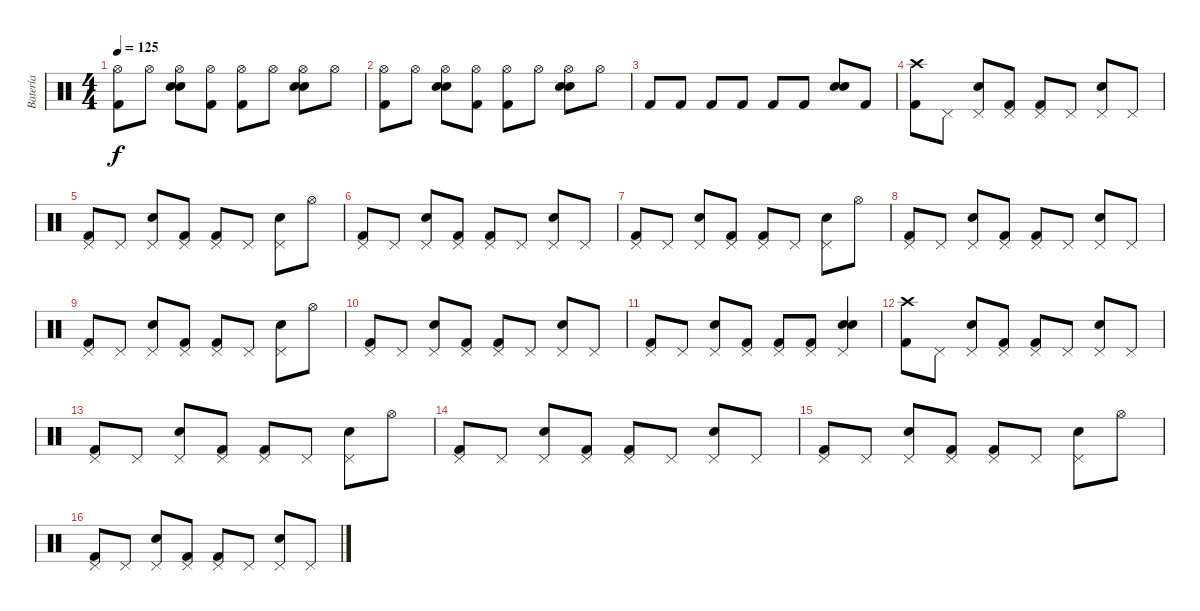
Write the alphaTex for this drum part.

\track ("Batería" "Batería") {instrument percussion}
\staff {score}
\articulation defaults
\ts (4 4)
\tempo 125
\clef neutral
\ks c
("Kick (hit) 2" "Hi-Hat (open)").8{dy f} "Hi-Hat (open)".8 ("Electric Snare (hit)" "Hi-Hat (open)" "Snare (hit) 2").8 ("Kick (hit) 2" "Hi-Hat (open)").8 ("Kick (hit) 2" "Hi-Hat (open)").8 "Hi-Hat (open)".8 ("Electric Snare (hit)" "Hi-Hat (open)" "Snare (hit) 2").8 "Hi-Hat (open)".8 |
("Kick (hit) 2" "Hi-Hat (open)").8 "Hi-Hat (open)".8 ("Electric Snare (hit)" "Hi-Hat (open)" "Snare (hit) 2").8 ("Kick (hit) 2" "Hi-Hat (open)").8 ("Kick (hit) 2" "Hi-Hat (open)").8 "Hi-Hat (open)".8 ("Electric Snare (hit)" "Hi-Hat (open)" "Snare (hit) 2").8 "Hi-Hat (open)".8 |
"Kick (hit) 2".8 "Kick (hit) 2".8 "Kick (hit) 2".8 "Kick (hit) 2".8 "Kick (hit) 2".8 "Kick (hit) 2".8 ("Electric Snare (hit)" "Snare (hit) 2").8 "Kick (hit) 2".8 |
("Kick (hit) 2" "Crash high (hit)").8 "Pedal Hi-Hat (hit)".8 ("Electric Snare (hit)" "Pedal Hi-Hat (hit)").8 ("Kick (hit) 2" "Pedal Hi-Hat (hit)").8 ("Kick (hit) 2" "Pedal Hi-Hat (hit)").8 "Pedal Hi-Hat (hit)".8 ("Electric Snare (hit)" "Pedal Hi-Hat (hit)").8 "Pedal Hi-Hat (hit)".8 |
("Kick (hit) 2" "Pedal Hi-Hat (hit)").8 "Pedal Hi-Hat (hit)".8 ("Electric Snare (hit)" "Pedal Hi-Hat (hit)").8 ("Kick (hit) 2" "Pedal Hi-Hat (hit)").8 ("Kick (hit) 2" "Pedal Hi-Hat (hit)").8 "Pedal Hi-Hat (hit)".8 ("Electric Snare (hit)" "Pedal Hi-Hat (hit)").8 "Hi-Hat (open)".8 |
("Kick (hit) 2" "Pedal Hi-Hat (hit)").8 "Pedal Hi-Hat (hit)".8 ("Electric Snare (hit)" "Pedal Hi-Hat (hit)").8 ("Kick (hit) 2" "Pedal Hi-Hat (hit)").8 ("Kick (hit) 2" "Pedal Hi-Hat (hit)").8 "Pedal Hi-Hat (hit)".8 ("Electric Snare (hit)" "Pedal Hi-Hat (hit)").8 "Pedal Hi-Hat (hit)".8 |
("Kick (hit) 2" "Pedal Hi-Hat (hit)").8 "Pedal Hi-Hat (hit)".8 ("Electric Snare (hit)" "Pedal Hi-Hat (hit)").8 ("Kick (hit) 2" "Pedal Hi-Hat (hit)").8 ("Kick (hit) 2" "Pedal Hi-Hat (hit)").8 "Pedal Hi-Hat (hit)".8 ("Electric Snare (hit)" "Pedal Hi-Hat (hit)").8 "Hi-Hat (open)".8 |
("Kick (hit) 2" "Pedal Hi-Hat (hit)").8 "Pedal Hi-Hat (hit)".8 ("Electric Snare (hit)" "Pedal Hi-Hat (hit)").8 ("Kick (hit) 2" "Pedal Hi-Hat (hit)").8 ("Kick (hit) 2" "Pedal Hi-Hat (hit)").8 "Pedal Hi-Hat (hit)".8 ("Electric Snare (hit)" "Pedal Hi-Hat (hit)").8 "Pedal Hi-Hat (hit)".8 |
("Kick (hit) 2" "Pedal Hi-Hat (hit)").8 "Pedal Hi-Hat (hit)".8 ("Electric Snare (hit)" "Pedal Hi-Hat (hit)").8 ("Kick (hit) 2" "Pedal Hi-Hat (hit)").8 ("Kick (hit) 2" "Pedal Hi-Hat (hit)").8 "Pedal Hi-Hat (hit)".8 ("Electric Snare (hit)" "Pedal Hi-Hat (hit)").8 "Hi-Hat (open)".8 |
("Kick (hit) 2" "Pedal Hi-Hat (hit)").8 "Pedal Hi-Hat (hit)".8 ("Electric Snare (hit)" "Pedal Hi-Hat (hit)").8 ("Kick (hit) 2" "Pedal Hi-Hat (hit)").8 ("Kick (hit) 2" "Pedal Hi-Hat (hit)").8 "Pedal Hi-Hat (hit)".8 ("Electric Snare (hit)" "Pedal Hi-Hat (hit)").8 "Pedal Hi-Hat (hit)".8 |
("Kick (hit) 2" "Pedal Hi-Hat (hit)").8 "Pedal Hi-Hat (hit)".8 ("Electric Snare (hit)" "Pedal Hi-Hat (hit)").8 ("Kick (hit) 2" "Pedal Hi-Hat (hit)").8 ("Kick (hit) 2" "Pedal Hi-Hat (hit)").8 ("Kick (hit) 2" "Pedal Hi-Hat (hit)").8 ("Electric Snare (hit)" "Pedal Hi-Hat (hit)" "Snare (hit) 2").4 |
("Kick (hit) 2" "Crash high (hit)").8 "Pedal Hi-Hat (hit)".8 ("Electric Snare (hit)" "Pedal Hi-Hat (hit)").8 ("Kick (hit) 2" "Pedal Hi-Hat (hit)").8 ("Kick (hit) 2" "Pedal Hi-Hat (hit)").8 "Pedal Hi-Hat (hit)".8 ("Electric Snare (hit)" "Pedal Hi-Hat (hit)").8 "Pedal Hi-Hat (hit)".8 |
("Kick (hit) 2" "Pedal Hi-Hat (hit)").8 "Pedal Hi-Hat (hit)".8 ("Electric Snare (hit)" "Pedal Hi-Hat (hit)").8 ("Kick (hit) 2" "Pedal Hi-Hat (hit)").8 ("Kick (hit) 2" "Pedal Hi-Hat (hit)").8 "Pedal Hi-Hat (hit)".8 ("Electric Snare (hit)" "Pedal Hi-Hat (hit)").8 "Hi-Hat (open)".8 |
("Kick (hit) 2" "Pedal Hi-Hat (hit)").8 "Pedal Hi-Hat (hit)".8 ("Electric Snare (hit)" "Pedal Hi-Hat (hit)").8 ("Kick (hit) 2" "Pedal Hi-Hat (hit)").8 ("Kick (hit) 2" "Pedal Hi-Hat (hit)").8 "Pedal Hi-Hat (hit)".8 ("Electric Snare (hit)" "Pedal Hi-Hat (hit)").8 "Pedal Hi-Hat (hit)".8 |
("Kick (hit) 2" "Pedal Hi-Hat (hit)").8 "Pedal Hi-Hat (hit)".8 ("Electric Snare (hit)" "Pedal Hi-Hat (hit)").8 ("Kick (hit) 2" "Pedal Hi-Hat (hit)").8 ("Kick (hit) 2" "Pedal Hi-Hat (hit)").8 "Pedal Hi-Hat (hit)".8 ("Electric Snare (hit)" "Pedal Hi-Hat (hit)").8 "Hi-Hat (open)".8 |
("Kick (hit) 2" "Pedal Hi-Hat (hit)").8 "Pedal Hi-Hat (hit)".8 ("Electric Snare (hit)" "Pedal Hi-Hat (hit)").8 ("Kick (hit) 2" "Pedal Hi-Hat (hit)").8 ("Kick (hit) 2" "Pedal Hi-Hat (hit)").8 "Pedal Hi-Hat (hit)".8 ("Electric Snare (hit)" "Pedal Hi-Hat (hit)").8 "Pedal Hi-Hat (hit)".8
